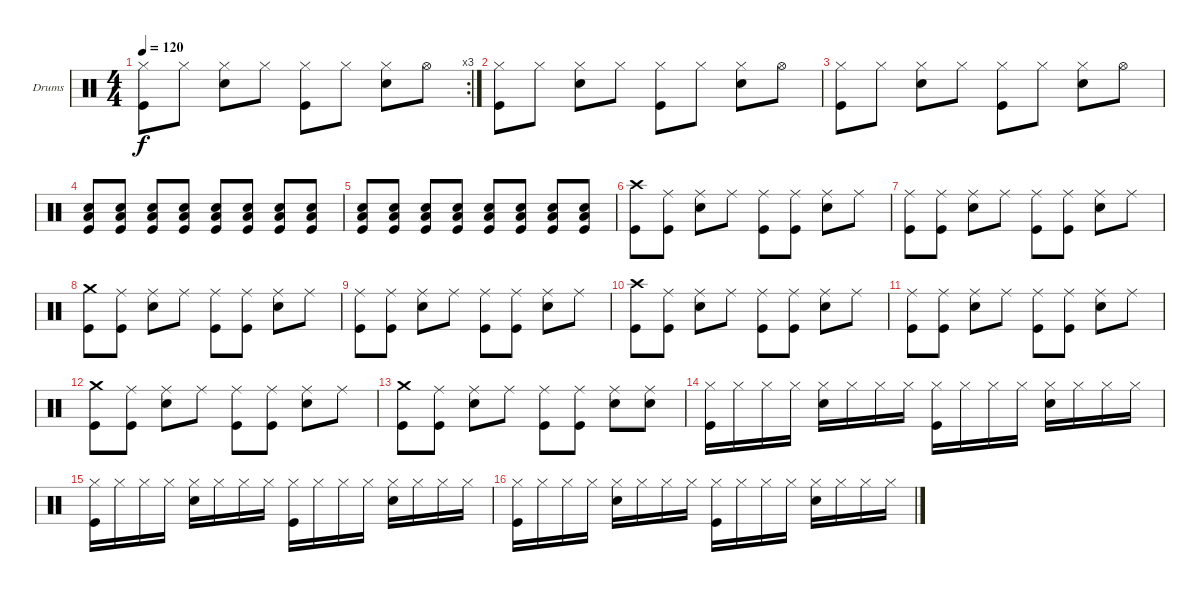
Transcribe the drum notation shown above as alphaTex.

\bracketExtendMode groupsimilarinstruments
\firstSystemTrackNameOrientation horizontal
\otherSystemsTrackNameOrientation horizontal
\track ("Drumkit" "Drums") {instrument percussion}
\staff {score}
\articulation defaults
\rc 3
\ts (4 4)
\tempo 120
\clef neutral
\ks c
("Kick (hit)" "Hi-Hat (closed)").8{dy f} "Hi-Hat (closed)".8 ("Snare (hit) 2" "Hi-Hat (closed)").8 "Hi-Hat (closed)".8 ("Kick (hit)" "Hi-Hat (closed)").8 "Hi-Hat (closed)".8 ("Snare (hit) 2" "Hi-Hat (closed)").8 "Hi-Hat (open)".8 |
("Kick (hit)" "Hi-Hat (closed)").8 "Hi-Hat (closed)".8 ("Snare (hit) 2" "Hi-Hat (closed)").8 "Hi-Hat (closed)".8 ("Kick (hit)" "Hi-Hat (closed)").8 "Hi-Hat (closed)".8 ("Snare (hit) 2" "Hi-Hat (closed)").8 "Hi-Hat (open)".8 |
("Kick (hit)" "Hi-Hat (closed)").8 "Hi-Hat (closed)".8 ("Snare (hit) 2" "Hi-Hat (closed)").8 "Hi-Hat (closed)".8 ("Kick (hit)" "Hi-Hat (closed)").8 "Hi-Hat (closed)".8 ("Snare (hit) 2" "Hi-Hat (closed)").8 "Hi-Hat (open)".8 |
("Snare (hit) 2" "Kick (hit)" "Low Tom (hit)").8 ("Snare (hit) 2" "Kick (hit)" "Low Tom (hit)").8 ("Snare (hit) 2" "Kick (hit)" "Low Tom (hit)").8 ("Snare (hit) 2" "Kick (hit)" "Low Tom (hit)").8 ("Snare (hit) 2" "Kick (hit)" "Low Tom (hit)").8 ("Snare (hit) 2" "Kick (hit)" "Low Tom (hit)").8 ("Snare (hit) 2" "Kick (hit)" "Low Tom (hit)").8 ("Snare (hit) 2" "Kick (hit)" "Low Tom (hit)").8 |
("Snare (hit) 2" "Low Tom (hit)" "Kick (hit)").8 ("Snare (hit) 2" "Low Tom (hit)" "Kick (hit)").8 ("Snare (hit) 2" "Low Tom (hit)" "Kick (hit)").8 ("Snare (hit) 2" "Low Tom (hit)" "Kick (hit)").8 ("Snare (hit) 2" "Low Tom (hit)" "Kick (hit)").8 ("Snare (hit) 2" "Low Tom (hit)" "Kick (hit)").8 ("Snare (hit) 2" "Low Tom (hit)" "Kick (hit)").8 ("Snare (hit) 2" "Low Tom (hit)" "Kick (hit)").8 |
("Kick (hit)" "Crash high (hit)").8 ("Ride (middle)" "Kick (hit)").8 ("Ride (middle)" "Snare (hit) 2").8 "Ride (middle)".8 ("Ride (middle)" "Kick (hit)").8 ("Ride (middle)" "Kick (hit)").8 ("Ride (middle)" "Snare (hit) 2").8 "Ride (middle)".8 |
("Ride (middle)" "Kick (hit)").8 ("Ride (middle)" "Kick (hit)").8 ("Ride (middle)" "Snare (hit) 2").8 "Ride (middle)".8 ("Ride (middle)" "Kick (hit)").8 ("Ride (middle)" "Kick (hit)").8 ("Ride (middle)" "Snare (hit) 2").8 "Ride (middle)".8 |
("Kick (hit)" "Crash medium (hit)").8 ("Ride (middle)" "Kick (hit)").8 ("Ride (middle)" "Snare (hit) 2").8 "Ride (middle)".8 ("Ride (middle)" "Kick (hit)").8 ("Ride (middle)" "Kick (hit)").8 ("Ride (middle)" "Snare (hit) 2").8 "Ride (middle)".8 |
("Ride (middle)" "Kick (hit)").8 ("Ride (middle)" "Kick (hit)").8 ("Ride (middle)" "Snare (hit) 2").8 "Ride (middle)".8 ("Ride (middle)" "Kick (hit)").8 ("Ride (middle)" "Kick (hit)").8 ("Ride (middle)" "Snare (hit) 2").8 "Ride (middle)".8 |
("Kick (hit)" "Crash high (hit)").8 ("Ride (middle)" "Kick (hit)").8 ("Ride (middle)" "Snare (hit) 2").8 "Ride (middle)".8 ("Ride (middle)" "Kick (hit)").8 ("Ride (middle)" "Kick (hit)").8 ("Ride (middle)" "Snare (hit) 2").8 "Ride (middle)".8 |
("Ride (middle)" "Kick (hit)").8 ("Ride (middle)" "Kick (hit)").8 ("Ride (middle)" "Snare (hit) 2").8 "Ride (middle)".8 ("Ride (middle)" "Kick (hit)").8 ("Ride (middle)" "Kick (hit)").8 ("Ride (middle)" "Snare (hit) 2").8 "Ride (middle)".8 |
("Kick (hit)" "Crash medium (hit)").8 ("Ride (middle)" "Kick (hit)").8 ("Ride (middle)" "Snare (hit) 2").8 "Ride (middle)".8 ("Ride (middle)" "Kick (hit)").8 ("Ride (middle)" "Kick (hit)").8 ("Ride (middle)" "Snare (hit) 2").8 "Ride (middle)".8 |
("Kick (hit)" "Crash medium (hit)").8 ("Ride (middle)" "Kick (hit)").8 ("Ride (middle)" "Snare (hit) 2").8 "Ride (middle)".8 ("Ride (middle)" "Kick (hit)").8 ("Ride (middle)" "Kick (hit)").8 ("Ride (middle)" "Snare (hit) 2").8 ("Ride (middle)" "Snare (hit) 2").8 |
("Hi-Hat (closed)" "Kick (hit)").16 "Hi-Hat (closed)".16 "Hi-Hat (closed)".16 "Hi-Hat (closed)".16 ("Hi-Hat (closed)" "Snare (hit) 2").16 "Hi-Hat (closed)".16 "Hi-Hat (closed)".16 "Hi-Hat (closed)".16 ("Hi-Hat (closed)" "Kick (hit)").16 "Hi-Hat (closed)".16 "Hi-Hat (closed)".16 "Hi-Hat (closed)".16 ("Hi-Hat (closed)" "Snare (hit) 2").16 "Hi-Hat (closed)".16 "Hi-Hat (closed)".16 "Hi-Hat (closed)".16 |
("Hi-Hat (closed)" "Kick (hit)").16 "Hi-Hat (closed)".16 "Hi-Hat (closed)".16 "Hi-Hat (closed)".16 ("Hi-Hat (closed)" "Snare (hit) 2").16 "Hi-Hat (closed)".16 "Hi-Hat (closed)".16 "Hi-Hat (closed)".16 ("Hi-Hat (closed)" "Kick (hit)").16 "Hi-Hat (closed)".16 "Hi-Hat (closed)".16 "Hi-Hat (closed)".16 ("Hi-Hat (closed)" "Snare (hit) 2").16 "Hi-Hat (closed)".16 "Hi-Hat (closed)".16 "Hi-Hat (closed)".16 |
("Hi-Hat (closed)" "Kick (hit)").16 "Hi-Hat (closed)".16 "Hi-Hat (closed)".16 "Hi-Hat (closed)".16 ("Hi-Hat (closed)" "Snare (hit) 2").16 "Hi-Hat (closed)".16 "Hi-Hat (closed)".16 "Hi-Hat (closed)".16 ("Hi-Hat (closed)" "Kick (hit)").16 "Hi-Hat (closed)".16 "Hi-Hat (closed)".16 "Hi-Hat (closed)".16 ("Hi-Hat (closed)" "Snare (hit) 2").16 "Hi-Hat (closed)".16 "Hi-Hat (closed)".16 "Hi-Hat (closed)".16
